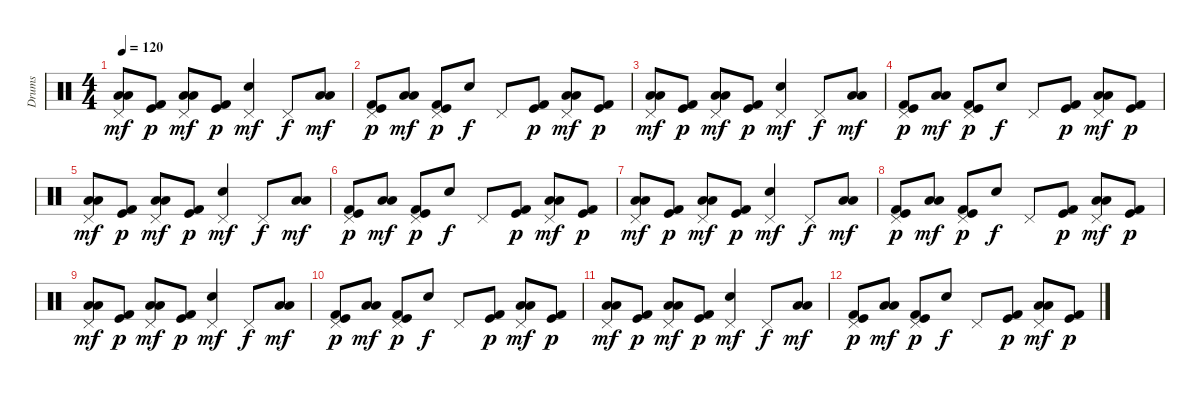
\track ("Drums" "Drums") {instrument percussion}
\staff {score}
\articulation defaults
\ts (4 4)
\tempo 120
\clef neutral
\ks c
("Low Tom (hit)" "Low Floor Tom (hit)" "Pedal Hi-Hat (hit)").8{dy mf} ("Kick (hit)" "Kick (hit) 2").8{dy p} ("Low Tom (hit)" "Low Floor Tom (hit)" "Pedal Hi-Hat (hit)").8{dy mf} ("Kick (hit)" "Kick (hit) 2").8{dy p} ("Snare (hit) 2" "Pedal Hi-Hat (hit)").4{dy mf} "Pedal Hi-Hat (hit)".8{dy f} ("Low Tom (hit)" "Low Floor Tom (hit)").8{dy mf} |
("Kick (hit)" "Kick (hit) 2" "Pedal Hi-Hat (hit)").8{dy p volume 7} ("Low Tom (hit)" "Low Floor Tom (hit)").8{dy mf} ("Kick (hit)" "Kick (hit) 2" "Pedal Hi-Hat (hit)").8{dy p} "Snare (hit) 2".8{dy f} "Pedal Hi-Hat (hit)".8 ("Kick (hit)" "Kick (hit) 2").8{dy p} ("Low Tom (hit)" "Low Floor Tom (hit)" "Pedal Hi-Hat (hit)").8{dy mf} ("Kick (hit)" "Kick (hit) 2").8{dy p} |
("Low Tom (hit)" "Low Floor Tom (hit)" "Pedal Hi-Hat (hit)").8{dy mf} ("Kick (hit)" "Kick (hit) 2").8{dy p} ("Low Tom (hit)" "Low Floor Tom (hit)" "Pedal Hi-Hat (hit)").8{dy mf} ("Kick (hit)" "Kick (hit) 2").8{dy p} ("Snare (hit) 2" "Pedal Hi-Hat (hit)").4{dy mf} "Pedal Hi-Hat (hit)".8{dy f} ("Low Tom (hit)" "Low Floor Tom (hit)").8{dy mf} |
("Kick (hit)" "Kick (hit) 2" "Pedal Hi-Hat (hit)").8{dy p} ("Low Tom (hit)" "Low Floor Tom (hit)").8{dy mf} ("Kick (hit)" "Kick (hit) 2" "Pedal Hi-Hat (hit)").8{dy p} "Snare (hit) 2".8{dy f} "Pedal Hi-Hat (hit)".8 ("Kick (hit)" "Kick (hit) 2").8{dy p} ("Low Tom (hit)" "Low Floor Tom (hit)" "Pedal Hi-Hat (hit)").8{dy mf} ("Kick (hit)" "Kick (hit) 2").8{dy p} |
("Low Tom (hit)" "Low Floor Tom (hit)" "Pedal Hi-Hat (hit)").8{dy mf volume 6} ("Kick (hit)" "Kick (hit) 2").8{dy p} ("Low Tom (hit)" "Low Floor Tom (hit)" "Pedal Hi-Hat (hit)").8{dy mf} ("Kick (hit)" "Kick (hit) 2").8{dy p} ("Snare (hit) 2" "Pedal Hi-Hat (hit)").4{dy mf} "Pedal Hi-Hat (hit)".8{dy f} ("Low Tom (hit)" "Low Floor Tom (hit)").8{dy mf} |
("Kick (hit)" "Kick (hit) 2" "Pedal Hi-Hat (hit)").8{dy p volume 5} ("Low Tom (hit)" "Low Floor Tom (hit)").8{dy mf} ("Kick (hit)" "Kick (hit) 2" "Pedal Hi-Hat (hit)").8{dy p} "Snare (hit) 2".8{dy f} "Pedal Hi-Hat (hit)".8 ("Kick (hit)" "Kick (hit) 2").8{dy p} ("Low Tom (hit)" "Low Floor Tom (hit)" "Pedal Hi-Hat (hit)").8{dy mf} ("Kick (hit)" "Kick (hit) 2").8{dy p} |
("Low Tom (hit)" "Low Floor Tom (hit)" "Pedal Hi-Hat (hit)").8{dy mf} ("Kick (hit)" "Kick (hit) 2").8{dy p} ("Low Tom (hit)" "Low Floor Tom (hit)" "Pedal Hi-Hat (hit)").8{dy mf} ("Kick (hit)" "Kick (hit) 2").8{dy p} ("Snare (hit) 2" "Pedal Hi-Hat (hit)").4{dy mf} "Pedal Hi-Hat (hit)".8{dy f} ("Low Tom (hit)" "Low Floor Tom (hit)").8{dy mf} |
("Kick (hit)" "Kick (hit) 2" "Pedal Hi-Hat (hit)").8{dy p} ("Low Tom (hit)" "Low Floor Tom (hit)").8{dy mf} ("Kick (hit)" "Kick (hit) 2" "Pedal Hi-Hat (hit)").8{dy p} "Snare (hit) 2".8{dy f} "Pedal Hi-Hat (hit)".8 ("Kick (hit)" "Kick (hit) 2").8{dy p} ("Low Tom (hit)" "Low Floor Tom (hit)" "Pedal Hi-Hat (hit)").8{dy mf} ("Kick (hit)" "Kick (hit) 2").8{dy p} |
("Low Tom (hit)" "Low Floor Tom (hit)" "Pedal Hi-Hat (hit)").8{dy mf} ("Kick (hit)" "Kick (hit) 2").8{dy p} ("Low Tom (hit)" "Low Floor Tom (hit)" "Pedal Hi-Hat (hit)").8{dy mf} ("Kick (hit)" "Kick (hit) 2").8{dy p} ("Snare (hit) 2" "Pedal Hi-Hat (hit)").4{dy mf} "Pedal Hi-Hat (hit)".8{dy f} ("Low Tom (hit)" "Low Floor Tom (hit)").8{dy mf} |
("Kick (hit)" "Kick (hit) 2" "Pedal Hi-Hat (hit)").8{dy p volume 3} ("Low Tom (hit)" "Low Floor Tom (hit)").8{dy mf} ("Kick (hit)" "Kick (hit) 2" "Pedal Hi-Hat (hit)").8{dy p} "Snare (hit) 2".8{dy f} "Pedal Hi-Hat (hit)".8 ("Kick (hit)" "Kick (hit) 2").8{dy p} ("Low Tom (hit)" "Low Floor Tom (hit)" "Pedal Hi-Hat (hit)").8{dy mf} ("Kick (hit)" "Kick (hit) 2").8{dy p} |
("Low Tom (hit)" "Low Floor Tom (hit)" "Pedal Hi-Hat (hit)").8{dy mf} ("Kick (hit)" "Kick (hit) 2").8{dy p} ("Low Tom (hit)" "Low Floor Tom (hit)" "Pedal Hi-Hat (hit)").8{dy mf} ("Kick (hit)" "Kick (hit) 2").8{dy p} ("Snare (hit) 2" "Pedal Hi-Hat (hit)").4{dy mf} "Pedal Hi-Hat (hit)".8{dy f} ("Low Tom (hit)" "Low Floor Tom (hit)").8{dy mf} |
("Kick (hit)" "Kick (hit) 2" "Pedal Hi-Hat (hit)").8{dy p} ("Low Tom (hit)" "Low Floor Tom (hit)").8{dy mf} ("Kick (hit)" "Kick (hit) 2" "Pedal Hi-Hat (hit)").8{dy p} "Snare (hit) 2".8{dy f} "Pedal Hi-Hat (hit)".8 ("Kick (hit)" "Kick (hit) 2").8{dy p} ("Low Tom (hit)" "Low Floor Tom (hit)" "Pedal Hi-Hat (hit)").8{dy mf} ("Kick (hit)" "Kick (hit) 2").8{dy p}
